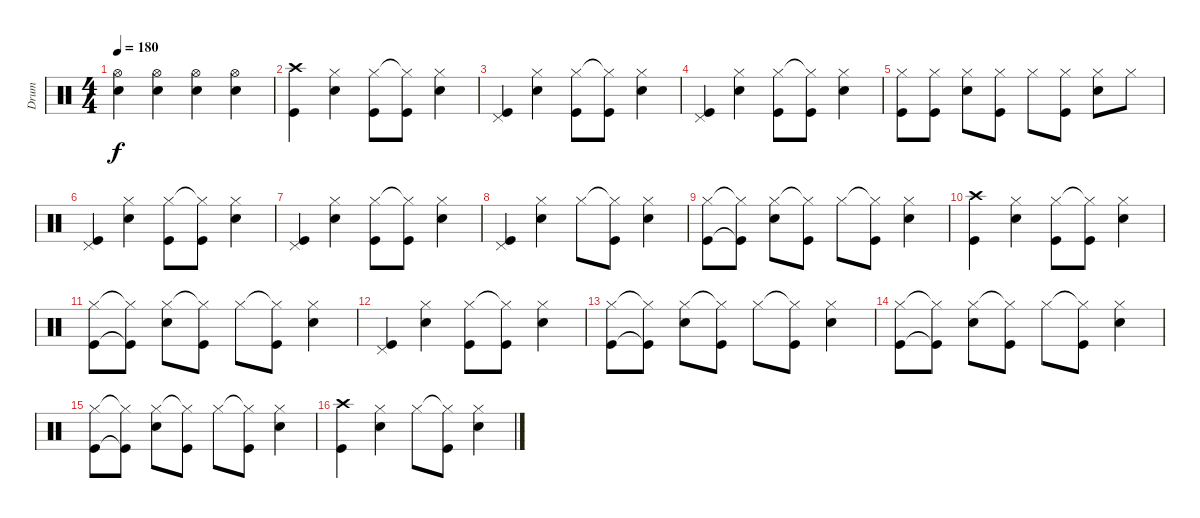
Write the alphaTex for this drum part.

\track ("Drum" "Drum") {instrument percussion}
\staff {score}
\articulation defaults
\ts (4 4)
\tempo 180
\clef neutral
\ks c
("Hi-Hat (open)" "Snare (hit) 2").4{dy f} ("Hi-Hat (open)" "Snare (hit) 2").4 ("Hi-Hat (open)" "Snare (hit) 2").4 ("Hi-Hat (open)" "Snare (hit) 2").4 |
("Crash high (hit)" "Kick (hit)").4 ("Hi-Hat (closed)" "Snare (hit) 2").4 ("Hi-Hat (closed)" "Kick (hit)").8 ("Hi-Hat (closed)"{t} "Kick (hit)").8 ("Hi-Hat (closed)" "Snare (hit) 2").4 |
("Pedal Hi-Hat (hit)" "Kick (hit)").4 ("Hi-Hat (closed)" "Snare (hit) 2").4 ("Hi-Hat (closed)" "Kick (hit)").8 ("Hi-Hat (closed)"{t} "Kick (hit)").8 ("Hi-Hat (closed)" "Snare (hit) 2").4 |
("Pedal Hi-Hat (hit)" "Kick (hit)").4 ("Hi-Hat (closed)" "Snare (hit) 2").4 ("Hi-Hat (closed)" "Kick (hit)").8 ("Hi-Hat (closed)"{t} "Kick (hit)").8 ("Hi-Hat (closed)" "Snare (hit) 2").4 |
("Hi-Hat (closed)" "Kick (hit)").8 ("Hi-Hat (closed)" "Kick (hit)").8 ("Hi-Hat (closed)" "Snare (hit) 2").8 ("Hi-Hat (closed)" "Kick (hit)").8 "Hi-Hat (closed)".8 ("Hi-Hat (closed)" "Kick (hit)").8 ("Hi-Hat (closed)" "Snare (hit) 2").8 "Hi-Hat (closed)".8 |
("Pedal Hi-Hat (hit)" "Kick (hit)").4 ("Hi-Hat (closed)" "Snare (hit) 2").4 ("Hi-Hat (closed)" "Kick (hit)").8 ("Hi-Hat (closed)"{t} "Kick (hit)").8 ("Hi-Hat (closed)" "Snare (hit) 2").4 |
("Pedal Hi-Hat (hit)" "Kick (hit)").4 ("Hi-Hat (closed)" "Snare (hit) 2").4 ("Hi-Hat (closed)" "Kick (hit)").8 ("Hi-Hat (closed)"{t} "Kick (hit)").8 ("Hi-Hat (closed)" "Snare (hit) 2").4 |
("Pedal Hi-Hat (hit)" "Kick (hit)").4 ("Hi-Hat (closed)" "Snare (hit) 2").4 "Hi-Hat (closed)".8 ("Hi-Hat (closed)"{t} "Kick (hit)").8 ("Hi-Hat (closed)" "Snare (hit) 2").4 |
("Hi-Hat (closed)" "Kick (hit)").8 ("Hi-Hat (closed)"{t} "Kick (hit)"{t}).8 ("Hi-Hat (closed)" "Snare (hit) 2").8 ("Hi-Hat (closed)"{t} "Kick (hit)").8 "Hi-Hat (closed)".8 ("Hi-Hat (closed)"{t} "Kick (hit)").8 ("Hi-Hat (closed)" "Snare (hit) 2").4 |
("Crash high (hit)" "Kick (hit)").4 ("Hi-Hat (closed)" "Snare (hit) 2").4 ("Hi-Hat (closed)" "Kick (hit)").8 ("Hi-Hat (closed)"{t} "Kick (hit)").8 ("Hi-Hat (closed)" "Snare (hit) 2").4 |
("Hi-Hat (closed)" "Kick (hit)").8 ("Hi-Hat (closed)"{t} "Kick (hit)"{t}).8 ("Hi-Hat (closed)" "Snare (hit) 2").8 ("Hi-Hat (closed)"{t} "Kick (hit)").8 "Hi-Hat (closed)".8 ("Hi-Hat (closed)"{t} "Kick (hit)").8 ("Hi-Hat (closed)" "Snare (hit) 2").4 |
("Pedal Hi-Hat (hit)" "Kick (hit)").4 ("Hi-Hat (closed)" "Snare (hit) 2").4 ("Hi-Hat (closed)" "Kick (hit)").8 ("Hi-Hat (closed)"{t} "Kick (hit)").8 ("Hi-Hat (closed)" "Snare (hit) 2").4 |
("Hi-Hat (closed)" "Kick (hit)").8 ("Hi-Hat (closed)"{t} "Kick (hit)"{t}).8 ("Hi-Hat (closed)" "Snare (hit) 2").8 ("Hi-Hat (closed)"{t} "Kick (hit)").8 "Hi-Hat (closed)".8 ("Hi-Hat (closed)"{t} "Kick (hit)").8 ("Hi-Hat (closed)" "Snare (hit) 2").4 |
("Hi-Hat (closed)" "Kick (hit)").8 ("Hi-Hat (closed)"{t} "Kick (hit)"{t}).8 ("Hi-Hat (closed)" "Snare (hit) 2").8 ("Hi-Hat (closed)"{t} "Kick (hit)").8 "Hi-Hat (closed)".8 ("Hi-Hat (closed)"{t} "Kick (hit)").8 ("Hi-Hat (closed)" "Snare (hit) 2").4 |
("Hi-Hat (closed)" "Kick (hit)").8 ("Hi-Hat (closed)"{t} "Kick (hit)"{t}).8 ("Hi-Hat (closed)" "Snare (hit) 2").8 ("Hi-Hat (closed)"{t} "Kick (hit)").8 "Hi-Hat (closed)".8 ("Hi-Hat (closed)"{t} "Kick (hit)").8 ("Hi-Hat (closed)" "Snare (hit) 2").4 |
("Crash high (hit)" "Kick (hit)").4 ("Hi-Hat (closed)" "Snare (hit) 2").4 "Hi-Hat (closed)".8 ("Hi-Hat (closed)"{t} "Kick (hit)").8 ("Hi-Hat (closed)" "Snare (hit) 2").4
